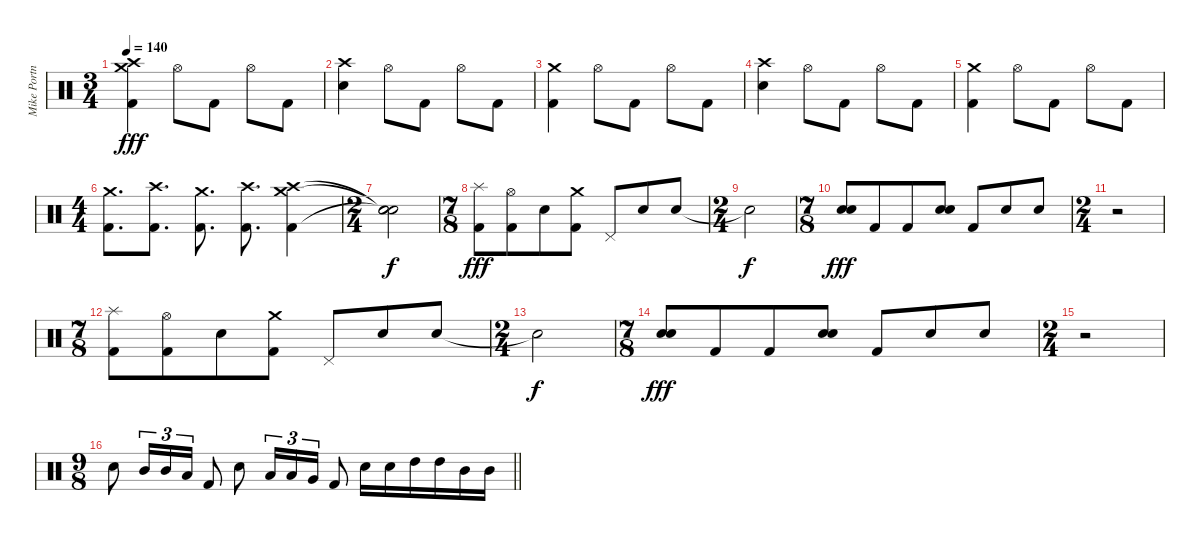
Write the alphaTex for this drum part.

\track ("Mike Portnoy" "Mike Portn") {instrument percussion}
\staff {score}
\articulation defaults
\ts (3 4)
\tempo 140
\clef neutral
\ks c
("Crash medium (hit)" "Crash high (hit)" "Kick (hit) 2").4{dy fff} "Hi-Hat (open)".8 "Kick (hit) 2".8 "Hi-Hat (open)".8 "Kick (hit) 2".8 |
("Crash high (hit)" "Snare (hit) 2").4 "Hi-Hat (open)".8 "Kick (hit) 2".8 "Hi-Hat (open)".8 "Kick (hit) 2".8 |
("Crash medium (hit)" "Kick (hit) 2").4 "Hi-Hat (open)".8 "Kick (hit) 2".8 "Hi-Hat (open)".8 "Kick (hit) 2".8 |
("Crash high (hit)" "Snare (hit) 2").4 "Hi-Hat (open)".8 "Kick (hit) 2".8 "Hi-Hat (open)".8 "Kick (hit) 2".8 |
("Crash medium (hit)" "Kick (hit) 2").4 "Hi-Hat (open)".8 "Kick (hit) 2".8 "Hi-Hat (open)".8 "Kick (hit) 2".8 |
\ts (4 4)
("Crash medium (hit)" "Kick (hit) 2").8{d} ("Crash high (hit)" "Kick (hit) 2").8{d} ("Crash medium (hit)" "Kick (hit) 2").8{d} ("Crash high (hit)" "Kick (hit) 2").8{d} ("Crash high (hit)" "Crash medium (hit)" "Kick (hit) 2").4 |
\ts (2 4)
("Snare (hit)"{t} "Snare (hit)"{t} "Snare (hit)"{t}).2{dy f} |
\ts (7 8)
("Splash (hit)" "Kick (hit) 2").8{dy fff} ("Hi-Hat (open)" "Kick (hit) 2").8 "Snare (hit) 2".8 ("Crash medium (hit)" "Kick (hit) 2").8 "Pedal Hi-Hat (hit)".8 "Snare (hit) 2".8 "Snare (hit) 2".8 |
\ts (2 4)
"Snare (hit)"{t}.2{dy f} |
\ts (7 8)
("Snare (hit) 2" "Snare (hit) 2").8{dy fff} "Kick (hit) 2".8 "Kick (hit) 2".8 ("Snare (hit) 2" "Snare (hit) 2").8 "Kick (hit) 2".8 "Snare (hit) 2".8 "Snare (hit) 2".8 |
\ts (2 4)
r.2 |
\ts (7 8)
("Splash (hit)" "Kick (hit) 2").8 ("Hi-Hat (open)" "Kick (hit) 2").8 "Snare (hit) 2".8 ("Crash medium (hit)" "Kick (hit) 2").8 "Pedal Hi-Hat (hit)".8 "Snare (hit) 2".8 "Snare (hit) 2".8 |
\ts (2 4)
"Snare (hit)"{t}.2{dy f} |
\ts (7 8)
("Snare (hit) 2" "Snare (hit) 2").8{dy fff} "Kick (hit) 2".8 "Kick (hit) 2".8 ("Snare (hit) 2" "Snare (hit) 2").8 "Kick (hit) 2".8 "Snare (hit) 2".8 "Snare (hit) 2".8 |
\ts (2 4)
r.2 |
\ts (9 8)
\barLineRight lightlight "Snare (hit) 2".8 "Mid Tom (hit)".16{tu (3 2)} "Mid Tom (hit)".16{tu (3 2)} "Low Tom (hit)".16{tu (3 2)} "Kick (hit) 2".8 "Snare (hit) 2".8 "Low Tom (hit)".16{tu (3 2)} "Low Tom (hit)".16{tu (3 2)} "Very Low Tom (hit)".16{tu (3 2)} "Kick (hit) 2".8 "Snare (hit) 2".16 "Snare (hit) 2".16 "High Tom (hit)".16 "High Tom (hit)".16 "Mid Tom (hit)".16 "Mid Tom (hit)".16
